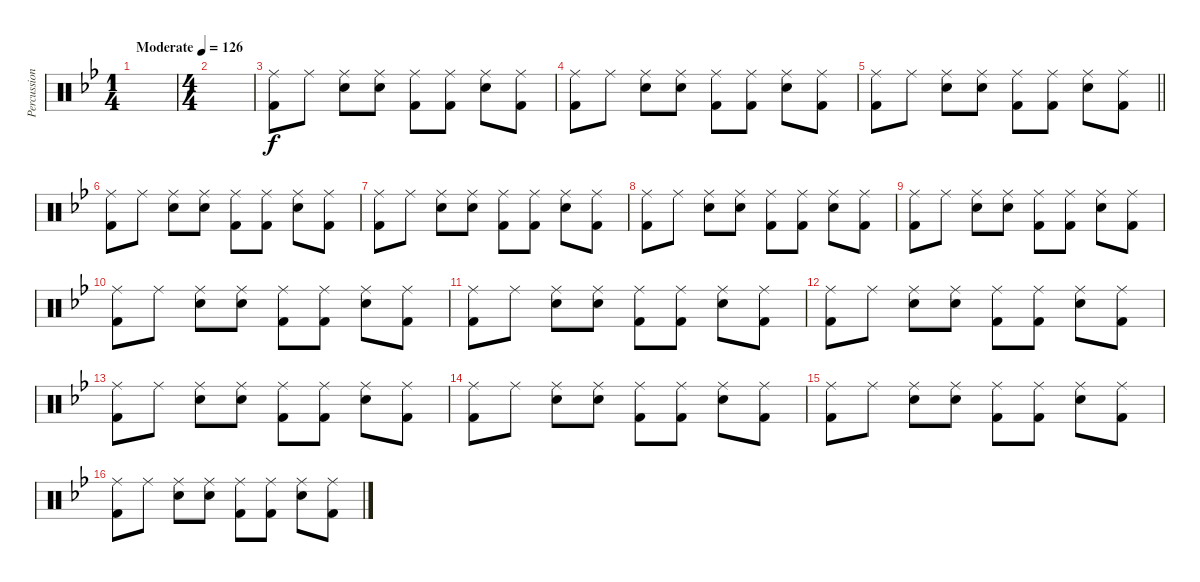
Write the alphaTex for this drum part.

\track ("Percussion" "Percussion") {instrument percussion}
\staff {score}
\articulation defaults
\ts (1 4)
\tempo (126 "Moderate")
\clef neutral
\ks bb
|
\ts (4 4)
|
("Ride (middle)" "Kick (hit) 2").8 "Ride (middle)".8 ("Ride (middle)" "Snare (hit) 2").8 ("Ride (middle)" "Snare (hit) 2").8 ("Ride (middle)" "Kick (hit) 2").8 ("Ride (middle)" "Kick (hit) 2").8 ("Ride (middle)" "Snare (hit) 2").8 ("Ride (middle)" "Kick (hit) 2").8 |
("Ride (middle)" "Kick (hit) 2").8 "Ride (middle)".8 ("Ride (middle)" "Snare (hit) 2").8 ("Ride (middle)" "Snare (hit) 2").8 ("Ride (middle)" "Kick (hit) 2").8 ("Ride (middle)" "Kick (hit) 2").8 ("Ride (middle)" "Snare (hit) 2").8 ("Ride (middle)" "Kick (hit) 2").8 |
\barLineRight lightlight
("Ride (middle)" "Kick (hit) 2").8 "Ride (middle)".8 ("Ride (middle)" "Snare (hit) 2").8 ("Ride (middle)" "Snare (hit) 2").8 ("Ride (middle)" "Kick (hit) 2").8 ("Ride (middle)" "Kick (hit) 2").8 ("Ride (middle)" "Snare (hit) 2").8 ("Ride (middle)" "Kick (hit) 2").8 |
("Ride (middle)" "Kick (hit) 2").8 "Ride (middle)".8 ("Ride (middle)" "Snare (hit) 2").8 ("Ride (middle)" "Snare (hit) 2").8 ("Ride (middle)" "Kick (hit) 2").8 ("Ride (middle)" "Kick (hit) 2").8 ("Ride (middle)" "Snare (hit) 2").8 ("Ride (middle)" "Kick (hit) 2").8 |
("Ride (middle)" "Kick (hit) 2").8 "Ride (middle)".8 ("Ride (middle)" "Snare (hit) 2").8 ("Ride (middle)" "Snare (hit) 2").8 ("Ride (middle)" "Kick (hit) 2").8 ("Ride (middle)" "Kick (hit) 2").8 ("Ride (middle)" "Snare (hit) 2").8 ("Ride (middle)" "Kick (hit) 2").8 |
("Ride (middle)" "Kick (hit) 2").8 "Ride (middle)".8 ("Ride (middle)" "Snare (hit) 2").8 ("Ride (middle)" "Snare (hit) 2").8 ("Ride (middle)" "Kick (hit) 2").8 ("Ride (middle)" "Kick (hit) 2").8 ("Ride (middle)" "Snare (hit) 2").8 ("Ride (middle)" "Kick (hit) 2").8 |
("Ride (middle)" "Kick (hit) 2").8 "Ride (middle)".8 ("Ride (middle)" "Snare (hit) 2").8 ("Ride (middle)" "Snare (hit) 2").8 ("Ride (middle)" "Kick (hit) 2").8 ("Ride (middle)" "Kick (hit) 2").8 ("Ride (middle)" "Snare (hit) 2").8 ("Ride (middle)" "Kick (hit) 2").8 |
("Ride (middle)" "Kick (hit) 2").8 "Ride (middle)".8 ("Ride (middle)" "Snare (hit) 2").8 ("Ride (middle)" "Snare (hit) 2").8 ("Ride (middle)" "Kick (hit) 2").8 ("Ride (middle)" "Kick (hit) 2").8 ("Ride (middle)" "Snare (hit) 2").8 ("Ride (middle)" "Kick (hit) 2").8 |
("Ride (middle)" "Kick (hit) 2").8 "Ride (middle)".8 ("Ride (middle)" "Snare (hit) 2").8 ("Ride (middle)" "Snare (hit) 2").8 ("Ride (middle)" "Kick (hit) 2").8 ("Ride (middle)" "Kick (hit) 2").8 ("Ride (middle)" "Snare (hit) 2").8 ("Ride (middle)" "Kick (hit) 2").8 |
("Ride (middle)" "Kick (hit) 2").8 "Ride (middle)".8 ("Ride (middle)" "Snare (hit) 2").8 ("Ride (middle)" "Snare (hit) 2").8 ("Ride (middle)" "Kick (hit) 2").8 ("Ride (middle)" "Kick (hit) 2").8 ("Ride (middle)" "Snare (hit) 2").8 ("Ride (middle)" "Kick (hit) 2").8 |
("Ride (middle)" "Kick (hit) 2").8 "Ride (middle)".8 ("Ride (middle)" "Snare (hit) 2").8 ("Ride (middle)" "Snare (hit) 2").8 ("Ride (middle)" "Kick (hit) 2").8 ("Ride (middle)" "Kick (hit) 2").8 ("Ride (middle)" "Snare (hit) 2").8 ("Ride (middle)" "Kick (hit) 2").8 |
("Ride (middle)" "Kick (hit) 2").8 "Ride (middle)".8 ("Ride (middle)" "Snare (hit) 2").8 ("Ride (middle)" "Snare (hit) 2").8 ("Ride (middle)" "Kick (hit) 2").8 ("Ride (middle)" "Kick (hit) 2").8 ("Ride (middle)" "Snare (hit) 2").8 ("Ride (middle)" "Kick (hit) 2").8 |
("Ride (middle)" "Kick (hit) 2").8 "Ride (middle)".8 ("Ride (middle)" "Snare (hit) 2").8 ("Ride (middle)" "Snare (hit) 2").8 ("Ride (middle)" "Kick (hit) 2").8 ("Ride (middle)" "Kick (hit) 2").8 ("Ride (middle)" "Snare (hit) 2").8 ("Ride (middle)" "Kick (hit) 2").8 |
("Ride (middle)" "Kick (hit) 2").8 "Ride (middle)".8 ("Ride (middle)" "Snare (hit) 2").8 ("Ride (middle)" "Snare (hit) 2").8 ("Ride (middle)" "Kick (hit) 2").8 ("Ride (middle)" "Kick (hit) 2").8 ("Ride (middle)" "Snare (hit) 2").8 ("Ride (middle)" "Kick (hit) 2").8
